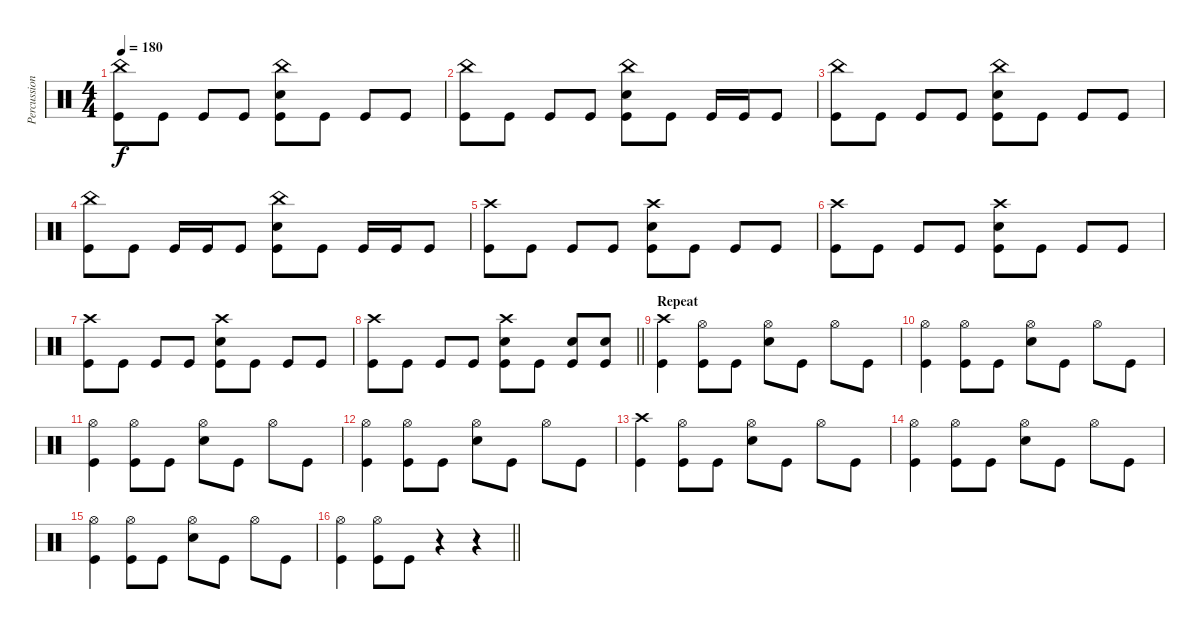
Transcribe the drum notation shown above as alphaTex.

\track ("Percussion" "Percussion") {instrument percussion}
\staff {score}
\articulation defaults
\ts (4 4)
\tempo 180
\clef neutral
\ks c
("China (hit)" "Kick (hit)").8{dy f} "Kick (hit)".8 "Kick (hit)".8 "Kick (hit)".8 ("China (hit)" "Kick (hit)" "Snare (hit) 2").8 "Kick (hit)".8 "Kick (hit)".8 "Kick (hit)".8 |
("China (hit)" "Kick (hit)").8 "Kick (hit)".8 "Kick (hit)".8 "Kick (hit)".8 ("China (hit)" "Kick (hit)" "Snare (hit) 2").8 "Kick (hit)".8 "Kick (hit)".16 "Kick (hit)".16 "Kick (hit)".8 |
("China (hit)" "Kick (hit)").8 "Kick (hit)".8 "Kick (hit)".8 "Kick (hit)".8 ("China (hit)" "Kick (hit)" "Snare (hit) 2").8 "Kick (hit)".8 "Kick (hit)".8 "Kick (hit)".8 |
("China (hit)" "Kick (hit)").8 "Kick (hit)".8 "Kick (hit)".16 "Kick (hit)".16 "Kick (hit)".8 ("China (hit)" "Kick (hit)" "Snare (hit) 2").8 "Kick (hit)".8 "Kick (hit)".16 "Kick (hit)".16 "Kick (hit)".8 |
("Crash high (hit)" "Kick (hit)").8 "Kick (hit)".8 "Kick (hit)".8 "Kick (hit)".8 ("Snare (hit) 2" "Crash high (hit)" "Kick (hit)").8 "Kick (hit)".8 "Kick (hit)".8 "Kick (hit)".8 |
("Crash high (hit)" "Kick (hit)").8 "Kick (hit)".8 "Kick (hit)".8 "Kick (hit)".8 ("Snare (hit) 2" "Crash high (hit)" "Kick (hit)").8 "Kick (hit)".8 "Kick (hit)".8 "Kick (hit)".8 |
("Crash high (hit)" "Kick (hit)").8 "Kick (hit)".8 "Kick (hit)".8 "Kick (hit)".8 ("Snare (hit) 2" "Crash high (hit)" "Kick (hit)").8 "Kick (hit)".8 "Kick (hit)".8 "Kick (hit)".8 |
\barLineRight lightlight
("Crash high (hit)" "Kick (hit)").8 "Kick (hit)".8 "Kick (hit)".8 "Kick (hit)".8 ("Snare (hit) 2" "Crash high (hit)" "Kick (hit)").8 "Kick (hit)".8 ("Snare (hit) 2" "Kick (hit)").8 ("Snare (hit) 2" "Kick (hit)").8 |
\section ("" "Repeat")
("Crash high (hit)" "Kick (hit)").4 ("Hi-Hat (open)" "Kick (hit)").8 "Kick (hit)".8 ("Snare (hit) 2" "Hi-Hat (open)").8 "Kick (hit)".8 "Hi-Hat (open)".8 "Kick (hit)".8 |
("Hi-Hat (open)" "Kick (hit)").4 ("Hi-Hat (open)" "Kick (hit)").8 "Kick (hit)".8 ("Snare (hit) 2" "Hi-Hat (open)").8 "Kick (hit)".8 "Hi-Hat (open)".8 "Kick (hit)".8 |
("Hi-Hat (open)" "Kick (hit)").4 ("Hi-Hat (open)" "Kick (hit)").8 "Kick (hit)".8 ("Snare (hit) 2" "Hi-Hat (open)").8 "Kick (hit)".8 "Hi-Hat (open)".8 "Kick (hit)".8 |
("Hi-Hat (open)" "Kick (hit)").4 ("Hi-Hat (open)" "Kick (hit)").8 "Kick (hit)".8 ("Snare (hit) 2" "Hi-Hat (open)").8 "Kick (hit)".8 "Hi-Hat (open)".8 "Kick (hit)".8 |
("Crash high (hit)" "Kick (hit)").4 ("Hi-Hat (open)" "Kick (hit)").8 "Kick (hit)".8 ("Snare (hit) 2" "Hi-Hat (open)").8 "Kick (hit)".8 "Hi-Hat (open)".8 "Kick (hit)".8 |
("Hi-Hat (open)" "Kick (hit)").4 ("Hi-Hat (open)" "Kick (hit)").8 "Kick (hit)".8 ("Snare (hit) 2" "Hi-Hat (open)").8 "Kick (hit)".8 "Hi-Hat (open)".8 "Kick (hit)".8 |
("Hi-Hat (open)" "Kick (hit)").4 ("Hi-Hat (open)" "Kick (hit)").8 "Kick (hit)".8 ("Snare (hit) 2" "Hi-Hat (open)").8 "Kick (hit)".8 "Hi-Hat (open)".8 "Kick (hit)".8 |
\barLineRight lightlight
("Hi-Hat (open)" "Kick (hit)").4 ("Hi-Hat (open)" "Kick (hit)").8 "Kick (hit)".8 r.4 r.4
